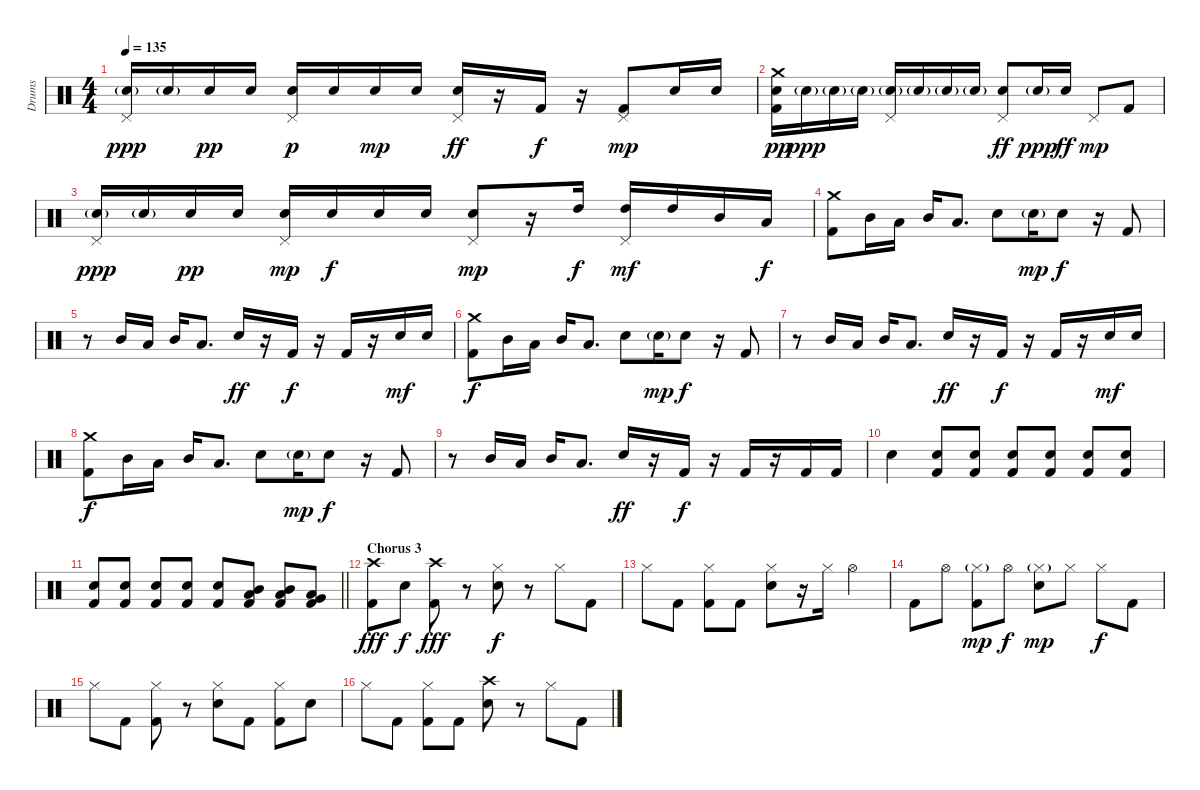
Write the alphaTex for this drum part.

\track ("Drums" "Drums") {instrument percussion}
\staff {score}
\articulation defaults
\ts (4 4)
\tempo 135
\clef neutral
\ks c
("Pedal Hi-Hat (hit)" "Snare (hit) 2"{g}).16{dy ppp} "Snare (hit) 2"{g}.16 "Snare (hit) 2".16{dy pp} "Snare (hit) 2".16 ("Pedal Hi-Hat (hit)" "Snare (hit) 2").16{dy p} "Snare (hit) 2".16 "Snare (hit) 2".16{dy mp} "Snare (hit) 2".16 ("Pedal Hi-Hat (hit)" "Snare (hit) 2").16{dy ff} r.16 "Kick (hit) 2".16{dy f} r.16 ("Pedal Hi-Hat (hit)" "Kick (hit) 2").8{dy mp} "Snare (hit) 2".16 "Snare (hit) 2".16 |
("Crash medium (hit)" "Snare (hit) 2" "Kick (hit) 2").16{dy pp} "Snare (hit) 2"{g}.16{dy ppp} "Snare (hit) 2"{g}.16 "Snare (hit) 2"{g}.16 ("Pedal Hi-Hat (hit)" "Snare (hit) 2"{g}).16 "Snare (hit) 2"{g}.16 "Snare (hit) 2"{g}.16 "Snare (hit) 2"{g}.16 ("Pedal Hi-Hat (hit)" "Snare (hit) 2").8{dy ff} "Snare (hit) 2"{g}.16{dy ppp} "Snare (hit) 2".16{dy ff} "Pedal Hi-Hat (hit)".8{dy mp} "Kick (hit) 2".8 |
("Pedal Hi-Hat (hit)" "Snare (hit) 2"{g}).16{dy ppp} "Snare (hit) 2"{g}.16 "Snare (hit) 2".16{dy pp} "Snare (hit) 2".16 ("Pedal Hi-Hat (hit)" "Snare (hit) 2").16{dy mp} "Snare (hit) 2".16{dy f} "Snare (hit) 2".16 "Snare (hit) 2".16 ("Pedal Hi-Hat (hit)" "Snare (hit) 2").8{dy mp} r.16 "High Tom (hit)".16{dy f} ("Pedal Hi-Hat (hit)" "High Tom (hit)").16{dy mf} "High Tom (hit)".16 "Mid Tom (hit)".16 "Low Tom (hit)".16{dy f} |
("Crash medium (hit)" "Kick (hit) 2").8 "Mid Tom (hit)".16 "Low Tom (hit)".16 "Mid Tom (hit)".16 "Low Tom (hit)".8{d} "Snare (hit) 2".8 "Snare (hit) 2"{g}.16{dy mp} "Snare (hit) 2".8{dy f} r.16 "Kick (hit) 2".8 |
r.8 "Mid Tom (hit)".16 "Low Tom (hit)".16 "Mid Tom (hit)".16 "Low Tom (hit)".8{d} "Snare (hit) 2".16{dy ff} r.16 "Kick (hit) 2".16{dy f} r.16 "Kick (hit) 2".16 r.16 "Snare (hit) 2".16{dy mf} "Snare (hit) 2".16 |
("Crash medium (hit)" "Kick (hit) 2").8{dy f} "Mid Tom (hit)".16 "Low Tom (hit)".16 "Mid Tom (hit)".16 "Low Tom (hit)".8{d} "Snare (hit) 2".8 "Snare (hit) 2"{g}.16{dy mp} "Snare (hit) 2".8{dy f} r.16 "Kick (hit) 2".8 |
r.8 "Mid Tom (hit)".16 "Low Tom (hit)".16 "Mid Tom (hit)".16 "Low Tom (hit)".8{d} "Snare (hit) 2".16{dy ff} r.16 "Kick (hit) 2".16{dy f} r.16 "Kick (hit) 2".16 r.16 "Snare (hit) 2".16{dy mf} "Snare (hit) 2".16 |
("Crash medium (hit)" "Kick (hit) 2").8{dy f} "Mid Tom (hit)".16 "Low Tom (hit)".16 "Mid Tom (hit)".16 "Low Tom (hit)".8{d} "Snare (hit) 2".8 "Snare (hit) 2"{g}.16{dy mp} "Snare (hit) 2".8{dy f} r.16 "Kick (hit) 2".8 |
r.8 "Mid Tom (hit)".16 "Low Tom (hit)".16 "Mid Tom (hit)".16 "Low Tom (hit)".8{d} "Snare (hit) 2".16{dy ff} r.16 "Kick (hit) 2".16{dy f} r.16 "Kick (hit) 2".16 r.16 "Kick (hit) 2".16 "Kick (hit) 2".16 |
"Electric Snare (hit)".4 ("Electric Snare (hit)" "Kick (hit) 2").8 ("Electric Snare (hit)" "Kick (hit) 2").8 ("Electric Snare (hit)" "Kick (hit) 2").8 ("Electric Snare (hit)" "Kick (hit) 2").8 ("Electric Snare (hit)" "Kick (hit) 2").8 ("Electric Snare (hit)" "Kick (hit) 2").8 |
\barLineRight lightlight
("Electric Snare (hit)" "Kick (hit) 2").8 ("Electric Snare (hit)" "Kick (hit) 2").8 ("Electric Snare (hit)" "Kick (hit) 2").8 ("Electric Snare (hit)" "Kick (hit) 2").8 ("Electric Snare (hit)" "Kick (hit) 2").8 ("Mid Tom (hit)" "Low Tom (hit)" "Kick (hit) 2").8 ("Mid Tom (hit)" "Low Tom (hit)" "Kick (hit) 2").8 ("Low Tom (hit)" "Very Low Tom (hit)" "Kick (hit) 2").8 |
\section ("" "Chorus 3")
("Crash high (hit)" "Kick (hit) 2").8{dy fff} "Electric Snare (hit)".8{dy f} ("Crash high (hit)" "Kick (hit) 2").8{dy fff} r.8 ("Hi-Hat (closed)" "Electric Snare (hit)").8{dy f} r.8 "Hi-Hat (closed)".8 "Kick (hit) 2".8 |
"Hi-Hat (closed)".8 "Kick (hit) 2".8 ("Hi-Hat (closed)" "Kick (hit) 2").8 "Kick (hit) 2".8 ("Hi-Hat (closed)" "Electric Snare (hit)").8 r.16 "Hi-Hat (closed)".16 "Hi-Hat (open)".4 |
"Kick (hit) 2".8 "Hi-Hat (open)".8 ("Hi-Hat (closed)"{g} "Kick (hit) 2").8{dy mp} "Hi-Hat (open)".8{dy f} ("Hi-Hat (closed)"{g} "Electric Snare (hit)").8{dy mp} "Hi-Hat (closed)".8 "Hi-Hat (closed)".8{dy f} "Kick (hit) 2".8 |
"Hi-Hat (closed)".8 "Kick (hit) 2".8 ("Hi-Hat (closed)" "Kick (hit) 2").8 r.8 ("Hi-Hat (closed)" "Electric Snare (hit)").8 "Kick (hit) 2".8 ("Hi-Hat (closed)" "Kick (hit) 2").8 "Electric Snare (hit)".8 |
"Hi-Hat (closed)".8 "Kick (hit) 2".8 ("Hi-Hat (closed)" "Kick (hit) 2").8 "Kick (hit) 2".8 ("Crash high (hit)" "Electric Snare (hit)").8 r.8 "Hi-Hat (closed)".8 "Kick (hit) 2".8
